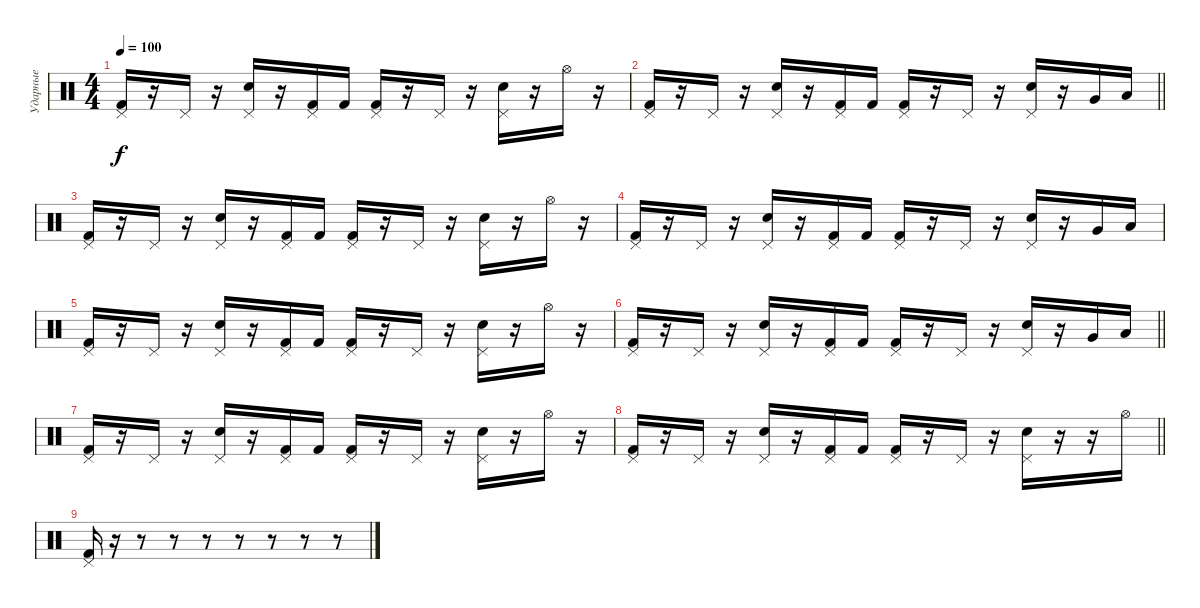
\track ("Ударные" "Ударные") {instrument percussion}
\staff {score}
\articulation defaults
\ts (4 4)
\tempo 100
\clef neutral
\ks c
("Pedal Hi-Hat (hit)" "Kick (hit) 2").16{dy f} r.16 "Pedal Hi-Hat (hit)".16 r.16 ("Pedal Hi-Hat (hit)" "Snare (hit) 2").16 r.16 ("Pedal Hi-Hat (hit)" "Kick (hit) 2").16 "Kick (hit) 2".16 ("Pedal Hi-Hat (hit)" "Kick (hit) 2").16 r.16 "Pedal Hi-Hat (hit)".16 r.16 ("Pedal Hi-Hat (hit)" "Snare (hit) 2").16 r.16 "Hi-Hat (open)".16 r.16 |
\barLineRight lightlight
("Pedal Hi-Hat (hit)" "Kick (hit) 2").16 r.16 "Pedal Hi-Hat (hit)".16 r.16 ("Pedal Hi-Hat (hit)" "Snare (hit) 2").16 r.16 ("Pedal Hi-Hat (hit)" "Kick (hit) 2").16 "Kick (hit) 2".16 ("Pedal Hi-Hat (hit)" "Kick (hit) 2").16 r.16 "Pedal Hi-Hat (hit)".16 r.16 ("Pedal Hi-Hat (hit)" "Snare (hit) 2").16 r.16 "Very Low Tom (hit)".16 "Low Floor Tom (hit)".16 |
("Pedal Hi-Hat (hit)" "Kick (hit) 2").16 r.16 "Pedal Hi-Hat (hit)".16 r.16 ("Pedal Hi-Hat (hit)" "Snare (hit) 2").16 r.16 ("Pedal Hi-Hat (hit)" "Kick (hit) 2").16 "Kick (hit) 2".16 ("Pedal Hi-Hat (hit)" "Kick (hit) 2").16 r.16 "Pedal Hi-Hat (hit)".16 r.16 ("Pedal Hi-Hat (hit)" "Snare (hit) 2").16 r.16 "Hi-Hat (open)".16 r.16 |
("Pedal Hi-Hat (hit)" "Kick (hit) 2").16 r.16 "Pedal Hi-Hat (hit)".16 r.16 ("Pedal Hi-Hat (hit)" "Snare (hit) 2").16 r.16 ("Pedal Hi-Hat (hit)" "Kick (hit) 2").16 "Kick (hit) 2".16 ("Pedal Hi-Hat (hit)" "Kick (hit) 2").16 r.16 "Pedal Hi-Hat (hit)".16 r.16 ("Pedal Hi-Hat (hit)" "Snare (hit) 2").16 r.16 "Very Low Tom (hit)".16 "Low Floor Tom (hit)".16 |
("Pedal Hi-Hat (hit)" "Kick (hit) 2").16 r.16 "Pedal Hi-Hat (hit)".16 r.16 ("Pedal Hi-Hat (hit)" "Snare (hit) 2").16 r.16 ("Pedal Hi-Hat (hit)" "Kick (hit) 2").16 "Kick (hit) 2".16 ("Pedal Hi-Hat (hit)" "Kick (hit) 2").16 r.16 "Pedal Hi-Hat (hit)".16 r.16 ("Pedal Hi-Hat (hit)" "Snare (hit) 2").16 r.16 "Hi-Hat (open)".16 r.16 |
\barLineRight lightlight
("Pedal Hi-Hat (hit)" "Kick (hit) 2").16 r.16 "Pedal Hi-Hat (hit)".16 r.16 ("Pedal Hi-Hat (hit)" "Snare (hit) 2").16 r.16 ("Pedal Hi-Hat (hit)" "Kick (hit) 2").16 "Kick (hit) 2".16 ("Pedal Hi-Hat (hit)" "Kick (hit) 2").16 r.16 "Pedal Hi-Hat (hit)".16 r.16 ("Pedal Hi-Hat (hit)" "Snare (hit) 2").16 r.16 "Very Low Tom (hit)".16 "Low Floor Tom (hit)".16 |
("Pedal Hi-Hat (hit)" "Kick (hit) 2").16 r.16 "Pedal Hi-Hat (hit)".16 r.16 ("Pedal Hi-Hat (hit)" "Snare (hit) 2").16 r.16 ("Pedal Hi-Hat (hit)" "Kick (hit) 2").16 "Kick (hit) 2".16 ("Pedal Hi-Hat (hit)" "Kick (hit) 2").16 r.16 "Pedal Hi-Hat (hit)".16 r.16 ("Pedal Hi-Hat (hit)" "Snare (hit) 2").16 r.16 "Hi-Hat (open)".16 r.16 |
\barLineRight lightlight
("Pedal Hi-Hat (hit)" "Kick (hit) 2").16 r.16 "Pedal Hi-Hat (hit)".16 r.16 ("Pedal Hi-Hat (hit)" "Snare (hit) 2").16 r.16 ("Pedal Hi-Hat (hit)" "Kick (hit) 2").16 "Kick (hit) 2".16 ("Pedal Hi-Hat (hit)" "Kick (hit) 2").16 r.16 "Pedal Hi-Hat (hit)".16 r.16 ("Pedal Hi-Hat (hit)" "Snare (hit) 2").16 r.16 r.16 "Hi-Hat (open)".16 |
("Pedal Hi-Hat (hit)" "Kick (hit) 2").16 r.16 r.8 r.8 r.8 r.8 r.8 r.8 r.8
